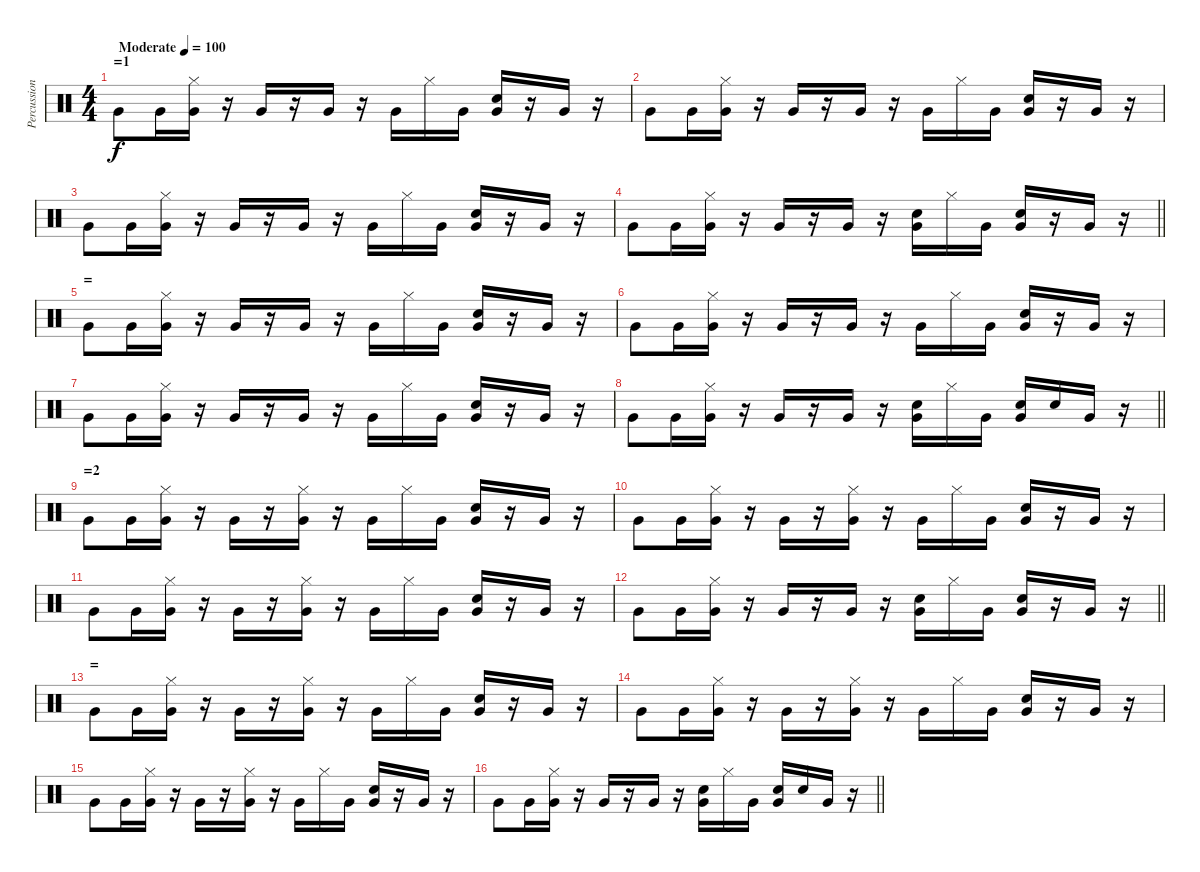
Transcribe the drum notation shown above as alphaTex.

\track ("Percussion" "Percussion") {instrument percussion}
\staff {score}
\articulation defaults
\ts (4 4)
\section ("" "=1")
\tempo (100 "Moderate")
\clef neutral
\ks c "Very Low Tom (hit)".8{dy f} "Very Low Tom (hit)".16
("Very Low Tom (hit)" "Hi-Hat (closed)").16 r.16 "Very Low Tom (hit)".16 r.16 "Very Low Tom (hit)".16 r.16 "Very Low Tom (hit)".16 "Hi-Hat (closed)".16 "Very Low Tom (hit)".16 ("Very Low Tom (hit)" "Electric Snare (hit)").16 r.16 "Very Low Tom (hit)".16 r.16 |
"Very Low Tom (hit)".8 "Very Low Tom (hit)".16 ("Very Low Tom (hit)" "Hi-Hat (closed)").16 r.16 "Very Low Tom (hit)".16 r.16 "Very Low Tom (hit)".16 r.16 "Very Low Tom (hit)".16 "Hi-Hat (closed)".16 "Very Low Tom (hit)".16 ("Very Low Tom (hit)" "Electric Snare (hit)").16 r.16 "Very Low Tom (hit)".16 r.16 |
"Very Low Tom (hit)".8 "Very Low Tom (hit)".16 ("Very Low Tom (hit)" "Hi-Hat (closed)").16 r.16 "Very Low Tom (hit)".16 r.16 "Very Low Tom (hit)".16 r.16 "Very Low Tom (hit)".16 "Hi-Hat (closed)".16 "Very Low Tom (hit)".16 ("Very Low Tom (hit)" "Electric Snare (hit)").16 r.16 "Very Low Tom (hit)".16 r.16 |
\barLineRight lightlight "Very Low Tom (hit)".8 "Very Low Tom (hit)".16
("Very Low Tom (hit)" "Hi-Hat (closed)").16 r.16 "Very Low Tom (hit)".16 r.16 "Very Low Tom (hit)".16 r.16 ("Very Low Tom (hit)" "Electric Snare (hit)").16 "Hi-Hat (closed)".16 "Very Low Tom (hit)".16 ("Very Low Tom (hit)" "Electric Snare (hit)").16 r.16 "Very Low Tom (hit)".16 r.16 |
\section ("" "=")
"Very Low Tom (hit)".8 "Very Low Tom (hit)".16 ("Very Low Tom (hit)" "Hi-Hat (closed)").16 r.16 "Very Low Tom (hit)".16 r.16 "Very Low Tom (hit)".16 r.16 "Very Low Tom (hit)".16 "Hi-Hat (closed)".16 "Very Low Tom (hit)".16 ("Very Low Tom (hit)" "Electric Snare (hit)").16 r.16 "Very Low Tom (hit)".16 r.16 |
"Very Low Tom (hit)".8 "Very Low Tom (hit)".16 ("Very Low Tom (hit)" "Hi-Hat (closed)").16 r.16 "Very Low Tom (hit)".16 r.16 "Very Low Tom (hit)".16 r.16 "Very Low Tom (hit)".16 "Hi-Hat (closed)".16 "Very Low Tom (hit)".16 ("Very Low Tom (hit)" "Electric Snare (hit)").16 r.16 "Very Low Tom (hit)".16 r.16 |
"Very Low Tom (hit)".8 "Very Low Tom (hit)".16 ("Very Low Tom (hit)" "Hi-Hat (closed)").16 r.16 "Very Low Tom (hit)".16 r.16 "Very Low Tom (hit)".16 r.16 "Very Low Tom (hit)".16 "Hi-Hat (closed)".16 "Very Low Tom (hit)".16 ("Very Low Tom (hit)" "Electric Snare (hit)").16 r.16 "Very Low Tom (hit)".16 r.16 |
\barLineRight lightlight "Very Low Tom (hit)".8 "Very Low Tom (hit)".16
("Very Low Tom (hit)" "Hi-Hat (closed)").16 r.16 "Very Low Tom (hit)".16 r.16 "Very Low Tom (hit)".16 r.16 ("Very Low Tom (hit)" "Electric Snare (hit)").16 "Hi-Hat (closed)".16 "Very Low Tom (hit)".16 ("Very Low Tom (hit)" "Electric Snare (hit)").16 "Electric Snare (hit)".16 "Very Low Tom (hit)".16 r.16 |
\section ("" "=2")
"Very Low Tom (hit)".8 "Very Low Tom (hit)".16 ("Very Low Tom (hit)" "Hi-Hat (closed)").16 r.16 "Very Low Tom (hit)".16 r.16 ("Very Low Tom (hit)" "Hi-Hat (closed)").16 r.16 "Very Low Tom (hit)".16 "Hi-Hat (closed)".16 "Very Low Tom (hit)".16 ("Very Low Tom (hit)" "Electric Snare (hit)").16 r.16 "Very Low Tom (hit)".16 r.16 |
"Very Low Tom (hit)".8 "Very Low Tom (hit)".16 ("Very Low Tom (hit)" "Hi-Hat (closed)").16 r.16 "Very Low Tom (hit)".16 r.16 ("Very Low Tom (hit)" "Hi-Hat (closed)").16 r.16 "Very Low Tom (hit)".16 "Hi-Hat (closed)".16 "Very Low Tom (hit)".16 ("Very Low Tom (hit)" "Electric Snare (hit)").16 r.16 "Very Low Tom (hit)".16 r.16 |
"Very Low Tom (hit)".8 "Very Low Tom (hit)".16 ("Very Low Tom (hit)" "Hi-Hat (closed)").16 r.16 "Very Low Tom (hit)".16 r.16 ("Very Low Tom (hit)" "Hi-Hat (closed)").16 r.16 "Very Low Tom (hit)".16 "Hi-Hat (closed)".16 "Very Low Tom (hit)".16 ("Very Low Tom (hit)" "Electric Snare (hit)").16 r.16 "Very Low Tom (hit)".16 r.16 |
\barLineRight lightlight "Very Low Tom (hit)".8 "Very Low Tom (hit)".16
("Very Low Tom (hit)" "Hi-Hat (closed)").16 r.16 "Very Low Tom (hit)".16 r.16 "Very Low Tom (hit)".16 r.16 ("Very Low Tom (hit)" "Electric Snare (hit)").16 "Hi-Hat (closed)".16 "Very Low Tom (hit)".16 ("Very Low Tom (hit)" "Electric Snare (hit)").16 r.16 "Very Low Tom (hit)".16 r.16 |
\section ("" "=")
"Very Low Tom (hit)".8 "Very Low Tom (hit)".16 ("Very Low Tom (hit)" "Hi-Hat (closed)").16 r.16 "Very Low Tom (hit)".16 r.16 ("Very Low Tom (hit)" "Hi-Hat (closed)").16 r.16 "Very Low Tom (hit)".16 "Hi-Hat (closed)".16 "Very Low Tom (hit)".16 ("Very Low Tom (hit)" "Electric Snare (hit)").16 r.16 "Very Low Tom (hit)".16 r.16 |
"Very Low Tom (hit)".8 "Very Low Tom (hit)".16 ("Very Low Tom (hit)" "Hi-Hat (closed)").16 r.16 "Very Low Tom (hit)".16 r.16 ("Very Low Tom (hit)" "Hi-Hat (closed)").16 r.16 "Very Low Tom (hit)".16 "Hi-Hat (closed)".16 "Very Low Tom (hit)".16 ("Very Low Tom (hit)" "Electric Snare (hit)").16 r.16 "Very Low Tom (hit)".16 r.16 |
"Very Low Tom (hit)".8 "Very Low Tom (hit)".16 ("Very Low Tom (hit)" "Hi-Hat (closed)").16 r.16 "Very Low Tom (hit)".16 r.16 ("Very Low Tom (hit)" "Hi-Hat (closed)").16 r.16 "Very Low Tom (hit)".16 "Hi-Hat (closed)".16 "Very Low Tom (hit)".16 ("Very Low Tom (hit)" "Electric Snare (hit)").16 r.16 "Very Low Tom (hit)".16 r.16 |
\barLineRight lightlight "Very Low Tom (hit)".8 "Very Low Tom (hit)".16
("Very Low Tom (hit)" "Hi-Hat (closed)").16 r.16 "Very Low Tom (hit)".16 r.16 "Very Low Tom (hit)".16 r.16 ("Very Low Tom (hit)" "Electric Snare (hit)").16 "Hi-Hat (closed)".16 "Very Low Tom (hit)".16 ("Very Low Tom (hit)" "Electric Snare (hit)").16 "Electric Snare (hit)".16 "Very Low Tom (hit)".16 r.16
